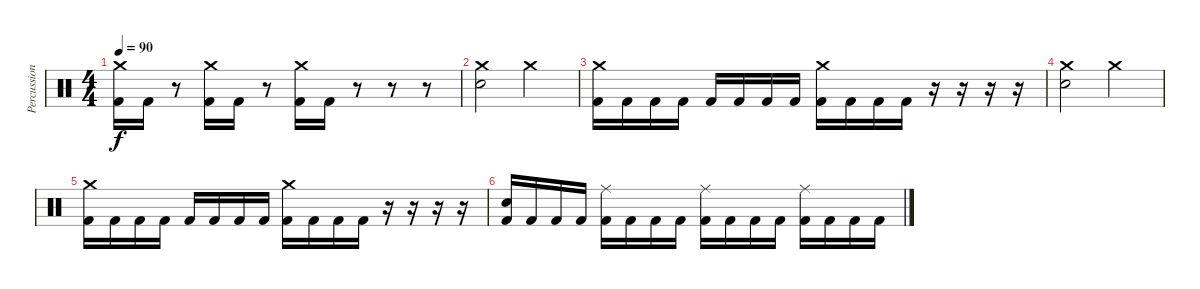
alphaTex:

\track ("Percussion" "Percussion") {instrument percussion}
\staff {score}
\articulation defaults
\ts (4 4)
\tempo 90
\clef neutral
\ks c
("Crash medium (hit)" "Kick (hit) 2").16{dy f} "Kick (hit) 2".16 r.8 ("Crash medium (hit)" "Kick (hit) 2").16 "Kick (hit) 2".16 r.8 ("Crash medium (hit)" "Kick (hit) 2").16 "Kick (hit) 2".16 r.8 r.8 r.8 |
("Crash medium (hit)" "Electric Snare (hit)").2 "Crash medium (hit)".2 |
("Crash medium (hit)" "Kick (hit) 2").16 "Kick (hit) 2".16 "Kick (hit) 2".16 "Kick (hit) 2".16 "Kick (hit) 2".16 "Kick (hit) 2".16 "Kick (hit) 2".16 "Kick (hit) 2".16 ("Crash medium (hit)" "Kick (hit) 2").16 "Kick (hit) 2".16 "Kick (hit) 2".16 "Kick (hit) 2".16 r.16 r.16 r.16 r.16 |
("Crash medium (hit)" "Electric Snare (hit)").2 "Crash medium (hit)".2 |
("Crash medium (hit)" "Kick (hit) 2").16 "Kick (hit) 2".16 "Kick (hit) 2".16 "Kick (hit) 2".16 "Kick (hit) 2".16 "Kick (hit) 2".16 "Kick (hit) 2".16 "Kick (hit) 2".16 ("Crash medium (hit)" "Kick (hit) 2").16 "Kick (hit) 2".16 "Kick (hit) 2".16 "Kick (hit) 2".16 r.16 r.16 r.16 r.16 |
("Electric Snare (hit)" "Kick (hit) 2").16 "Kick (hit) 2".16 "Kick (hit) 2".16 "Kick (hit) 2".16 ("Ride (middle)" "Kick (hit) 2").16 "Kick (hit) 2".16 "Kick (hit) 2".16 "Kick (hit) 2".16 ("Ride (middle)" "Kick (hit) 2").16 "Kick (hit) 2".16 "Kick (hit) 2".16 "Kick (hit) 2".16 ("Ride (middle)" "Kick (hit) 2").16 "Kick (hit) 2".16 "Kick (hit) 2".16 "Kick (hit) 2".16
